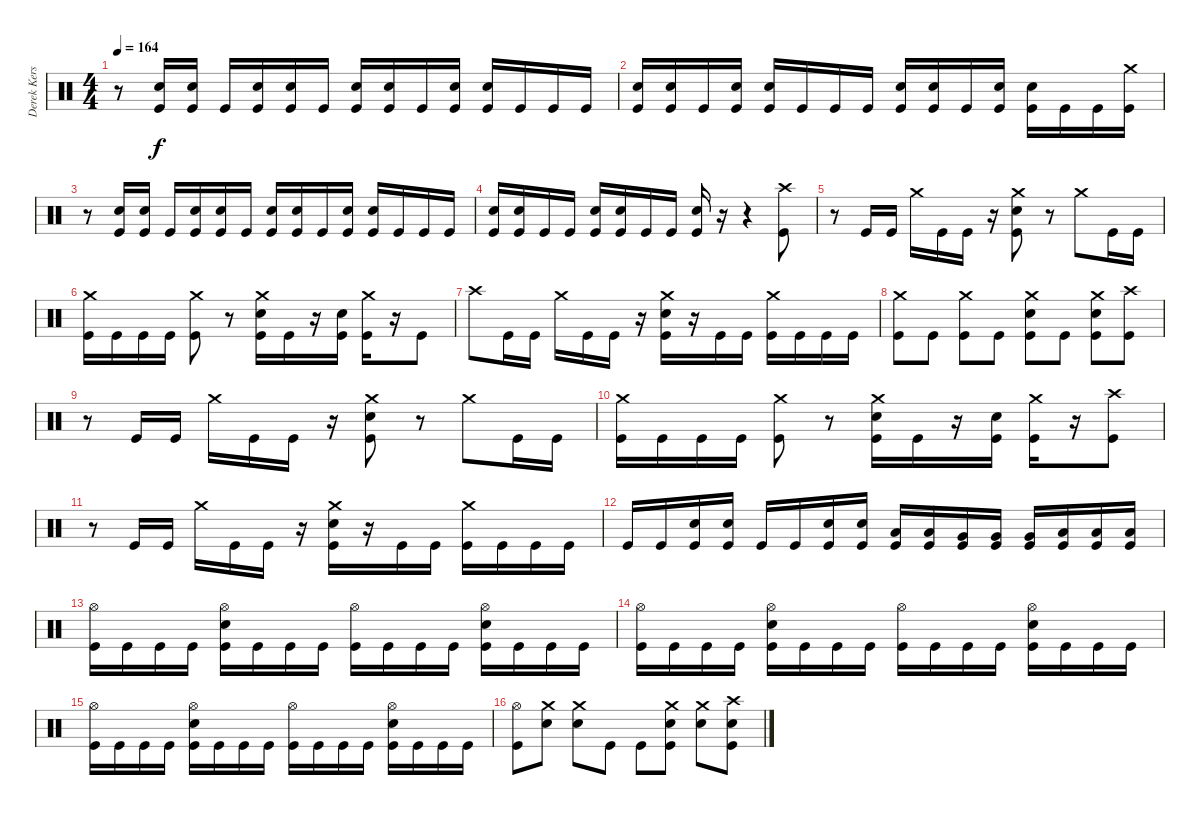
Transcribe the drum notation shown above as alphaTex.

\track ("Derek Kerswill" "Derek Kers") {instrument percussion}
\staff {score}
\articulation defaults
\ts (4 4)
\tempo 164
\clef neutral
\ks c
r.8{dy f} ("Snare (hit) 2" "Kick (hit)").16 ("Snare (hit) 2" "Kick (hit)").16 "Kick (hit)".16 ("Snare (hit) 2" "Kick (hit)").16 ("Snare (hit) 2" "Kick (hit)").16 "Kick (hit)".16 ("Snare (hit) 2" "Kick (hit)").16 ("Snare (hit) 2" "Kick (hit)").16 "Kick (hit)".16 ("Snare (hit) 2" "Kick (hit)").16 ("Snare (hit) 2" "Kick (hit)").16 "Kick (hit)".16 "Kick (hit)".16 "Kick (hit)".16 |
("Snare (hit) 2" "Kick (hit)").16 ("Snare (hit) 2" "Kick (hit)").16 "Kick (hit)".16 ("Snare (hit) 2" "Kick (hit)").16 ("Snare (hit) 2" "Kick (hit)").16 "Kick (hit)".16 "Kick (hit)".16 "Kick (hit)".16 ("Snare (hit) 2" "Kick (hit)").16 ("Snare (hit) 2" "Kick (hit)").16 "Kick (hit)".16 ("Snare (hit) 2" "Kick (hit)").16 ("Snare (hit) 2" "Kick (hit)").16 "Kick (hit)".16 "Kick (hit)".16 ("Crash medium (hit)" "Kick (hit)").16 |
r.8 ("Snare (hit) 2" "Kick (hit)").16 ("Snare (hit) 2" "Kick (hit)").16 "Kick (hit)".16 ("Snare (hit) 2" "Kick (hit)").16 ("Snare (hit) 2" "Kick (hit)").16 "Kick (hit)".16 ("Snare (hit) 2" "Kick (hit)").16 ("Snare (hit) 2" "Kick (hit)").16 "Kick (hit)".16 ("Snare (hit) 2" "Kick (hit)").16 ("Snare (hit) 2" "Kick (hit)").16 "Kick (hit)".16 "Kick (hit)".16 "Kick (hit)".16 |
("Snare (hit) 2" "Kick (hit)").16 ("Snare (hit) 2" "Kick (hit)").16 "Kick (hit)".16 "Kick (hit)".16 ("Snare (hit) 2" "Kick (hit)").16 ("Snare (hit) 2" "Kick (hit)").16 "Kick (hit)".16 "Kick (hit)".16 ("Snare (hit) 2" "Kick (hit)").16 r.16 r.4 ("Crash high (hit)" "Kick (hit)").8 |
r.8 "Kick (hit)".16 "Kick (hit)".16 "Crash medium (hit)".16 "Kick (hit)".16 "Kick (hit)".16 r.16 ("Crash medium (hit)" "Snare (hit) 2" "Kick (hit)").8 r.8 "Crash medium (hit)".8 "Kick (hit)".16 "Kick (hit)".16 |
("Crash medium (hit)" "Kick (hit)").16 "Kick (hit)".16 "Kick (hit)".16 "Kick (hit)".16 ("Crash medium (hit)" "Kick (hit)").8 r.8 ("Crash medium (hit)" "Snare (hit) 2" "Kick (hit)").16 "Kick (hit)".16 r.16 ("Snare (hit) 2" "Kick (hit)").16 ("Crash medium (hit)" "Kick (hit)").16 r.16 "Kick (hit)".8 |
"Crash high (hit)".8 "Kick (hit)".16 "Kick (hit)".16 "Crash medium (hit)".16 "Kick (hit)".16 "Kick (hit)".16 r.16 ("Crash medium (hit)" "Snare (hit) 2" "Kick (hit)").16 r.16 "Kick (hit)".16 "Kick (hit)".16 ("Crash medium (hit)" "Kick (hit)").16 "Kick (hit)".16 "Kick (hit)".16 "Kick (hit)".16 |
("Crash medium (hit)" "Kick (hit)").8 "Kick (hit)".8 ("Crash medium (hit)" "Kick (hit)").8 "Kick (hit)".8 ("Crash medium (hit)" "Snare (hit) 2" "Kick (hit)").8 "Kick (hit)".8 ("Crash medium (hit)" "Snare (hit) 2" "Kick (hit)").8 ("Crash high (hit)" "Kick (hit)").8 |
r.8 "Kick (hit)".16 "Kick (hit)".16 "Crash medium (hit)".16 "Kick (hit)".16 "Kick (hit)".16 r.16 ("Crash medium (hit)" "Snare (hit) 2" "Kick (hit)").8 r.8 "Crash medium (hit)".8 "Kick (hit)".16 "Kick (hit)".16 |
("Crash medium (hit)" "Kick (hit)").16 "Kick (hit)".16 "Kick (hit)".16 "Kick (hit)".16 ("Crash medium (hit)" "Kick (hit)").8 r.8 ("Crash medium (hit)" "Snare (hit) 2" "Kick (hit)").16 "Kick (hit)".16 r.16 ("Snare (hit) 2" "Kick (hit)").16 ("Crash medium (hit)" "Kick (hit)").16 r.16 ("Crash high (hit)" "Kick (hit)").8 |
r.8 "Kick (hit)".16 "Kick (hit)".16 "Crash medium (hit)".16 "Kick (hit)".16 "Kick (hit)".16 r.16 ("Crash medium (hit)" "Snare (hit) 2" "Kick (hit)").16 r.16 "Kick (hit)".16 "Kick (hit)".16 ("Crash medium (hit)" "Kick (hit)").16 "Kick (hit)".16 "Kick (hit)".16 "Kick (hit)".16 |
"Kick (hit)".16 "Kick (hit)".16 ("Snare (hit) 2" "Kick (hit)").16 ("Snare (hit) 2" "Kick (hit)").16 "Kick (hit)".16 "Kick (hit)".16 ("Snare (hit) 2" "Kick (hit)").16 ("Snare (hit) 2" "Kick (hit)").16 ("Low Tom (hit)" "Kick (hit)").16 ("Low Tom (hit)" "Kick (hit)").16 ("Very Low Tom (hit)" "Kick (hit)").16 ("Very Low Tom (hit)" "Kick (hit)").16 ("Very Low Tom (hit)" "Kick (hit)").16 ("Low Floor Tom (hit)" "Kick (hit)").16 ("Low Floor Tom (hit)" "Kick (hit)").16 ("Low Floor Tom (hit)" "Kick (hit)").16 |
("Hi-Hat (open)" "Kick (hit)").16 "Kick (hit)".16 "Kick (hit)".16 "Kick (hit)".16 ("Hi-Hat (open)" "Snare (hit) 2" "Kick (hit)").16 "Kick (hit)".16 "Kick (hit)".16 "Kick (hit)".16 ("Hi-Hat (open)" "Kick (hit)").16 "Kick (hit)".16 "Kick (hit)".16 "Kick (hit)".16 ("Hi-Hat (open)" "Snare (hit) 2" "Kick (hit)").16 "Kick (hit)".16 "Kick (hit)".16 "Kick (hit)".16 |
("Hi-Hat (open)" "Kick (hit)").16 "Kick (hit)".16 "Kick (hit)".16 "Kick (hit)".16 ("Hi-Hat (open)" "Snare (hit) 2" "Kick (hit)").16 "Kick (hit)".16 "Kick (hit)".16 "Kick (hit)".16 ("Hi-Hat (open)" "Kick (hit)").16 "Kick (hit)".16 "Kick (hit)".16 "Kick (hit)".16 ("Hi-Hat (open)" "Snare (hit) 2" "Kick (hit)").16 "Kick (hit)".16 "Kick (hit)".16 "Kick (hit)".16 |
("Hi-Hat (open)" "Kick (hit)").16 "Kick (hit)".16 "Kick (hit)".16 "Kick (hit)".16 ("Hi-Hat (open)" "Snare (hit) 2" "Kick (hit)").16 "Kick (hit)".16 "Kick (hit)".16 "Kick (hit)".16 ("Hi-Hat (open)" "Kick (hit)").16 "Kick (hit)".16 "Kick (hit)".16 "Kick (hit)".16 ("Hi-Hat (open)" "Snare (hit) 2" "Kick (hit)").16 "Kick (hit)".16 "Kick (hit)".16 "Kick (hit)".16 |
("Hi-Hat (open)" "Kick (hit)").8 ("Snare (hit) 2" "Crash medium (hit)").8 ("Snare (hit) 2" "Crash medium (hit)").8 "Kick (hit)".8 "Kick (hit)".8 ("Crash medium (hit)" "Snare (hit) 2" "Kick (hit)").8 ("Crash medium (hit)" "Snare (hit) 2").8 ("Crash high (hit)" "Snare (hit) 2" "Kick (hit)").8
